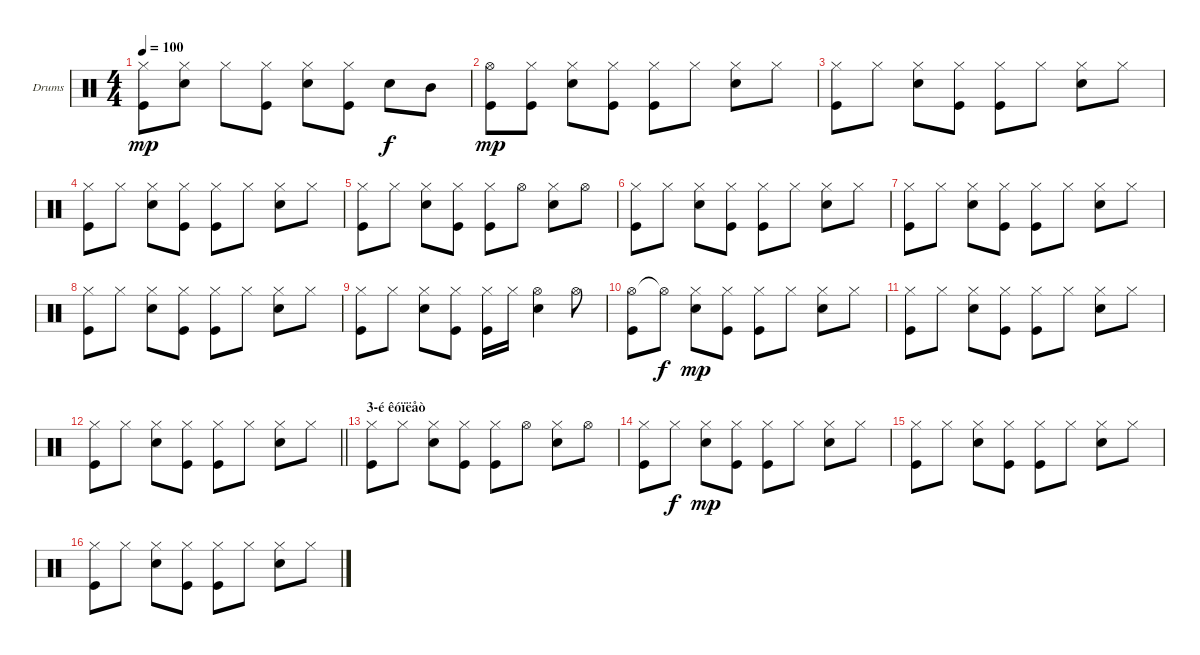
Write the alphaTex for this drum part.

\bracketExtendMode groupsimilarinstruments
\firstSystemTrackNameOrientation horizontal
\otherSystemsTrackNameOrientation horizontal
\track ("Drumkit" "Drums") {instrument percussion}
\staff {score}
\articulation defaults
\ts (4 4)
\tempo 100
\clef neutral
\scale
0.333333
\ks c
("Hi-Hat (closed)" "Kick (hit)").8{dy mp} ("Hi-Hat (closed)" "Snare (hit) 2").8 "Hi-Hat (closed)".8 ("Hi-Hat (closed)" "Kick (hit)").8 ("Hi-Hat (closed)" "Snare (hit) 2").8 ("Hi-Hat (closed)" "Kick (hit)").8 "Snare (hit) 2".8{dy f} "Mid Tom (hit)".8 |
\scale
0.333333 ("Hi-Hat (open)" "Kick (hit)").8{dy mp} ("Hi-Hat (closed)" "Kick (hit)").8 ("Hi-Hat (closed)" "Snare (hit) 2").8 ("Hi-Hat (closed)" "Kick (hit)").8 ("Hi-Hat (closed)" "Kick (hit)").8 "Hi-Hat (closed)".8 ("Hi-Hat (closed)" "Snare (hit) 2").8 "Hi-Hat (closed)".8 |
\scale
0.333333 ("Hi-Hat (closed)" "Kick (hit)").8 "Hi-Hat (closed)".8 ("Hi-Hat (closed)" "Snare (hit) 2").8 ("Hi-Hat (closed)" "Kick (hit)").8 ("Hi-Hat (closed)" "Kick (hit)").8 "Hi-Hat (closed)".8 ("Hi-Hat (closed)" "Snare (hit) 2").8 "Hi-Hat (closed)".8 |
\scale
0.333333 ("Hi-Hat (closed)" "Kick (hit)").8 "Hi-Hat (closed)".8 ("Hi-Hat (closed)" "Snare (hit) 2").8 ("Hi-Hat (closed)" "Kick (hit)").8 ("Hi-Hat (closed)" "Kick (hit)").8 "Hi-Hat (closed)".8 ("Hi-Hat (closed)" "Snare (hit) 2").8 "Hi-Hat (closed)".8 |
\scale
0.333333 ("Hi-Hat (closed)" "Kick (hit)").8 "Hi-Hat (closed)".8 ("Hi-Hat (closed)" "Snare (hit) 2").8 ("Hi-Hat (closed)" "Kick (hit)").8 ("Hi-Hat (closed)" "Kick (hit)").8 "Hi-Hat (open)".8 ("Hi-Hat (closed)" "Snare (hit) 2").8 "Hi-Hat (open)".8 |
\scale
0.333333 ("Hi-Hat (closed)" "Kick (hit)").8 "Hi-Hat (closed)".8 ("Hi-Hat (closed)" "Snare (hit) 2").8 ("Hi-Hat (closed)" "Kick (hit)").8 ("Hi-Hat (closed)" "Kick (hit)").8 "Hi-Hat (closed)".8 ("Hi-Hat (closed)" "Snare (hit) 2").8 "Hi-Hat (closed)".8 |
\scale
0.333333 ("Hi-Hat (closed)" "Kick (hit)").8 "Hi-Hat (closed)".8 ("Hi-Hat (closed)" "Snare (hit) 2").8 ("Hi-Hat (closed)" "Kick (hit)").8 ("Hi-Hat (closed)" "Kick (hit)").8 "Hi-Hat (closed)".8 ("Hi-Hat (closed)" "Snare (hit) 2").8 "Hi-Hat (closed)".8 |
\scale
0.333333 ("Hi-Hat (closed)" "Kick (hit)").8 "Hi-Hat (closed)".8 ("Hi-Hat (closed)" "Snare (hit) 2").8 ("Hi-Hat (closed)" "Kick (hit)").8 ("Hi-Hat (closed)" "Kick (hit)").8 "Hi-Hat (closed)".8 ("Hi-Hat (closed)" "Snare (hit) 2").8 "Hi-Hat (closed)".8 |
\scale
0.333333 ("Hi-Hat (closed)" "Kick (hit)").8 "Hi-Hat (closed)".8 ("Hi-Hat (closed)" "Snare (hit) 2").8 ("Hi-Hat (closed)" "Kick (hit)").8 ("Hi-Hat (closed)" "Kick (hit)").16 "Hi-Hat (closed)".16 ("Hi-Hat (open)" "Snare (hit) 2").4 "Hi-Hat (open)".8 |
\scale
0.333333 ("Hi-Hat (open)" "Kick (hit)").8 "Hi-Hat (open)"{t}.8{dy f} ("Hi-Hat (closed)" "Snare (hit) 2").8{dy mp} ("Hi-Hat (closed)" "Kick (hit)").8 ("Hi-Hat (closed)" "Kick (hit)").8 "Hi-Hat (closed)".8 ("Hi-Hat (closed)" "Snare (hit) 2").8 "Hi-Hat (closed)".8 |
\scale
0.333333 ("Hi-Hat (closed)" "Kick (hit)").8 "Hi-Hat (closed)".8 ("Hi-Hat (closed)" "Snare (hit) 2").8 ("Hi-Hat (closed)" "Kick (hit)").8 ("Hi-Hat (closed)" "Kick (hit)").8 "Hi-Hat (closed)".8 ("Hi-Hat (closed)" "Snare (hit) 2").8 "Hi-Hat (closed)".8 |
\scale
0.333333
\barLineRight lightlight
("Hi-Hat (closed)" "Kick (hit)").8 "Hi-Hat (closed)".8 ("Hi-Hat (closed)" "Snare (hit) 2").8 ("Hi-Hat (closed)" "Kick (hit)").8 ("Hi-Hat (closed)" "Kick (hit)").8 "Hi-Hat (closed)".8 ("Hi-Hat (closed)" "Snare (hit) 2").8 "Hi-Hat (closed)".8 |
\section ("" "3-é êóïëåò")
\scale
0.333333 ("Hi-Hat (closed)" "Kick (hit)").8 "Hi-Hat (closed)".8 ("Hi-Hat (closed)" "Snare (hit) 2").8 ("Hi-Hat (closed)" "Kick (hit)").8 ("Hi-Hat (closed)" "Kick (hit)").8 "Hi-Hat (open)".8 ("Hi-Hat (closed)" "Snare (hit) 2").8 "Hi-Hat (open)".8 |
\scale
0.333333 ("Hi-Hat (closed)" "Kick (hit)").8 "Hi-Hat (closed)".8{dy f} ("Hi-Hat (closed)" "Snare (hit) 2").8{dy mp} ("Hi-Hat (closed)" "Kick (hit)").8 ("Hi-Hat (closed)" "Kick (hit)").8 "Hi-Hat (closed)".8 ("Hi-Hat (closed)" "Snare (hit) 2").8 "Hi-Hat (closed)".8 |
\scale
0.333333 ("Hi-Hat (closed)" "Kick (hit)").8 "Hi-Hat (closed)".8 ("Hi-Hat (closed)" "Snare (hit) 2").8 ("Hi-Hat (closed)" "Kick (hit)").8 ("Hi-Hat (closed)" "Kick (hit)").8 "Hi-Hat (closed)".8 ("Hi-Hat (closed)" "Snare (hit) 2").8 "Hi-Hat (closed)".8 |
\scale
0.333333 ("Hi-Hat (closed)" "Kick (hit)").8 "Hi-Hat (closed)".8 ("Hi-Hat (closed)" "Snare (hit) 2").8 ("Hi-Hat (closed)" "Kick (hit)").8 ("Hi-Hat (closed)" "Kick (hit)").8 "Hi-Hat (closed)".8 ("Hi-Hat (closed)" "Snare (hit) 2").8 "Hi-Hat (closed)".8
